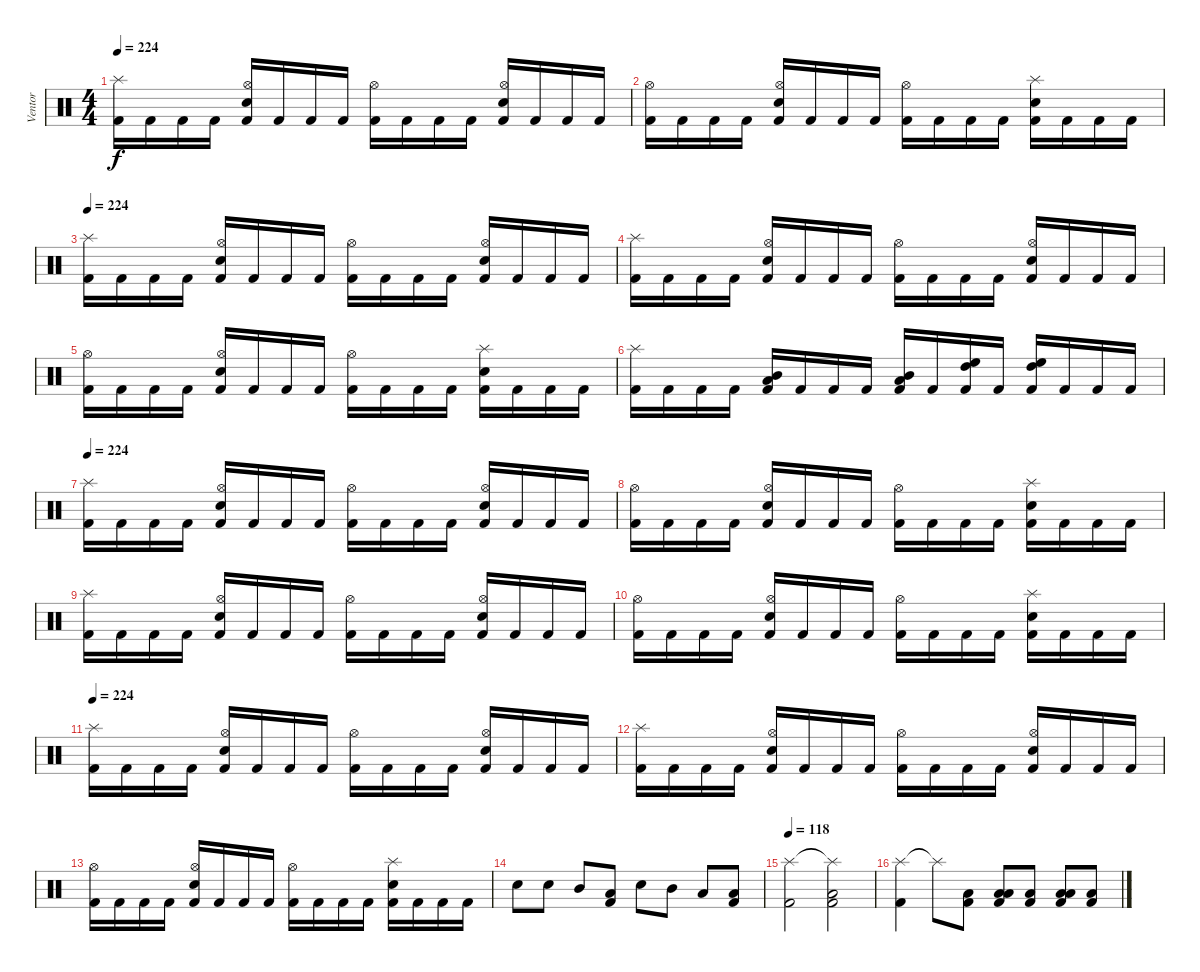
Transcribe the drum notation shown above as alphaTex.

\track ("Ventor" "Ventor") {instrument percussion}
\staff {score}
\articulation defaults
\ts (4 4)
\tempo 224
\clef neutral
\ks c
("Splash (hit)" "Kick (hit) 2").16{dy f} "Kick (hit) 2".16 "Kick (hit) 2".16 "Kick (hit) 2".16 ("Hi-Hat (open)" "Electric Snare (hit)" "Kick (hit) 2").16 "Kick (hit) 2".16 "Kick (hit) 2".16 "Kick (hit) 2".16 ("Hi-Hat (open)" "Kick (hit) 2").16 "Kick (hit) 2".16 "Kick (hit) 2".16 "Kick (hit) 2".16 ("Hi-Hat (open)" "Electric Snare (hit)" "Kick (hit) 2").16 "Kick (hit) 2".16 "Kick (hit) 2".16 "Kick (hit) 2".16 |
("Hi-Hat (open)" "Kick (hit) 2").16 "Kick (hit) 2".16 "Kick (hit) 2".16 "Kick (hit) 2".16 ("Hi-Hat (open)" "Electric Snare (hit)" "Kick (hit) 2").16 "Kick (hit) 2".16 "Kick (hit) 2".16 "Kick (hit) 2".16 ("Hi-Hat (open)" "Kick (hit) 2").16 "Kick (hit) 2".16 "Kick (hit) 2".16 "Kick (hit) 2".16 ("Splash (hit)" "Electric Snare (hit)" "Kick (hit) 2").16 "Kick (hit) 2".16 "Kick (hit) 2".16 "Kick (hit) 2".16 |
\tempo 224
("Splash (hit)" "Kick (hit) 2").16 "Kick (hit) 2".16 "Kick (hit) 2".16 "Kick (hit) 2".16 ("Hi-Hat (open)" "Electric Snare (hit)" "Kick (hit) 2").16 "Kick (hit) 2".16 "Kick (hit) 2".16 "Kick (hit) 2".16 ("Hi-Hat (open)" "Kick (hit) 2").16 "Kick (hit) 2".16 "Kick (hit) 2".16 "Kick (hit) 2".16 ("Hi-Hat (open)" "Electric Snare (hit)" "Kick (hit) 2").16 "Kick (hit) 2".16 "Kick (hit) 2".16 "Kick (hit) 2".16 |
("Splash (hit)" "Kick (hit) 2").16 "Kick (hit) 2".16 "Kick (hit) 2".16 "Kick (hit) 2".16 ("Hi-Hat (open)" "Electric Snare (hit)" "Kick (hit) 2").16 "Kick (hit) 2".16 "Kick (hit) 2".16 "Kick (hit) 2".16 ("Hi-Hat (open)" "Kick (hit) 2").16 "Kick (hit) 2".16 "Kick (hit) 2".16 "Kick (hit) 2".16 ("Hi-Hat (open)" "Electric Snare (hit)" "Kick (hit) 2").16 "Kick (hit) 2".16 "Kick (hit) 2".16 "Kick (hit) 2".16 |
("Hi-Hat (open)" "Kick (hit) 2").16 "Kick (hit) 2".16 "Kick (hit) 2".16 "Kick (hit) 2".16 ("Hi-Hat (open)" "Electric Snare (hit)" "Kick (hit) 2").16 "Kick (hit) 2".16 "Kick (hit) 2".16 "Kick (hit) 2".16 ("Hi-Hat (open)" "Kick (hit) 2").16 "Kick (hit) 2".16 "Kick (hit) 2".16 "Kick (hit) 2".16 ("Splash (hit)" "Electric Snare (hit)" "Kick (hit) 2").16 "Kick (hit) 2".16 "Kick (hit) 2".16 "Kick (hit) 2".16 |
("Splash (hit)" "Kick (hit) 2").16 "Kick (hit) 2".16 "Kick (hit) 2".16 "Kick (hit) 2".16 ("Low Tom (hit)" "Mid Tom (hit)" "Kick (hit) 2").16 "Kick (hit) 2".16 "Kick (hit) 2".16 "Kick (hit) 2".16 ("Low Tom (hit)" "Mid Tom (hit)" "Kick (hit) 2").16 "Kick (hit) 2".16 ("High Floor Tom (hit)" "High Tom (hit)" "Kick (hit) 2").16 "Kick (hit) 2".16 ("High Floor Tom (hit)" "High Tom (hit)" "Kick (hit) 2").16 "Kick (hit) 2".16 "Kick (hit) 2".16 "Kick (hit) 2".16 |
\tempo 224
("Splash (hit)" "Kick (hit) 2").16 "Kick (hit) 2".16 "Kick (hit) 2".16 "Kick (hit) 2".16 ("Hi-Hat (open)" "Electric Snare (hit)" "Kick (hit) 2").16 "Kick (hit) 2".16 "Kick (hit) 2".16 "Kick (hit) 2".16 ("Hi-Hat (open)" "Kick (hit) 2").16 "Kick (hit) 2".16 "Kick (hit) 2".16 "Kick (hit) 2".16 ("Hi-Hat (open)" "Electric Snare (hit)" "Kick (hit) 2").16 "Kick (hit) 2".16 "Kick (hit) 2".16 "Kick (hit) 2".16 |
("Hi-Hat (open)" "Kick (hit) 2").16 "Kick (hit) 2".16 "Kick (hit) 2".16 "Kick (hit) 2".16 ("Hi-Hat (open)" "Electric Snare (hit)" "Kick (hit) 2").16 "Kick (hit) 2".16 "Kick (hit) 2".16 "Kick (hit) 2".16 ("Hi-Hat (open)" "Kick (hit) 2").16 "Kick (hit) 2".16 "Kick (hit) 2".16 "Kick (hit) 2".16 ("Splash (hit)" "Electric Snare (hit)" "Kick (hit) 2").16 "Kick (hit) 2".16 "Kick (hit) 2".16 "Kick (hit) 2".16 |
("Splash (hit)" "Kick (hit) 2").16 "Kick (hit) 2".16 "Kick (hit) 2".16 "Kick (hit) 2".16 ("Hi-Hat (open)" "Electric Snare (hit)" "Kick (hit) 2").16 "Kick (hit) 2".16 "Kick (hit) 2".16 "Kick (hit) 2".16 ("Hi-Hat (open)" "Kick (hit) 2").16 "Kick (hit) 2".16 "Kick (hit) 2".16 "Kick (hit) 2".16 ("Hi-Hat (open)" "Electric Snare (hit)" "Kick (hit) 2").16 "Kick (hit) 2".16 "Kick (hit) 2".16 "Kick (hit) 2".16 |
("Hi-Hat (open)" "Kick (hit) 2").16 "Kick (hit) 2".16 "Kick (hit) 2".16 "Kick (hit) 2".16 ("Hi-Hat (open)" "Electric Snare (hit)" "Kick (hit) 2").16 "Kick (hit) 2".16 "Kick (hit) 2".16 "Kick (hit) 2".16 ("Hi-Hat (open)" "Kick (hit) 2").16 "Kick (hit) 2".16 "Kick (hit) 2".16 "Kick (hit) 2".16 ("Splash (hit)" "Electric Snare (hit)" "Kick (hit) 2").16 "Kick (hit) 2".16 "Kick (hit) 2".16 "Kick (hit) 2".16 |
\tempo 224
("Splash (hit)" "Kick (hit) 2").16 "Kick (hit) 2".16 "Kick (hit) 2".16 "Kick (hit) 2".16 ("Hi-Hat (open)" "Electric Snare (hit)" "Kick (hit) 2").16 "Kick (hit) 2".16 "Kick (hit) 2".16 "Kick (hit) 2".16 ("Hi-Hat (open)" "Kick (hit) 2").16 "Kick (hit) 2".16 "Kick (hit) 2".16 "Kick (hit) 2".16 ("Hi-Hat (open)" "Electric Snare (hit)" "Kick (hit) 2").16 "Kick (hit) 2".16 "Kick (hit) 2".16 "Kick (hit) 2".16 |
("Splash (hit)" "Kick (hit) 2").16 "Kick (hit) 2".16 "Kick (hit) 2".16 "Kick (hit) 2".16 ("Hi-Hat (open)" "Electric Snare (hit)" "Kick (hit) 2").16 "Kick (hit) 2".16 "Kick (hit) 2".16 "Kick (hit) 2".16 ("Hi-Hat (open)" "Kick (hit) 2").16 "Kick (hit) 2".16 "Kick (hit) 2".16 "Kick (hit) 2".16 ("Hi-Hat (open)" "Electric Snare (hit)" "Kick (hit) 2").16 "Kick (hit) 2".16 "Kick (hit) 2".16 "Kick (hit) 2".16 |
("Hi-Hat (open)" "Kick (hit) 2").16 "Kick (hit) 2".16 "Kick (hit) 2".16 "Kick (hit) 2".16 ("Hi-Hat (open)" "Electric Snare (hit)" "Kick (hit) 2").16 "Kick (hit) 2".16 "Kick (hit) 2".16 "Kick (hit) 2".16 ("Hi-Hat (open)" "Kick (hit) 2").16 "Kick (hit) 2".16 "Kick (hit) 2".16 "Kick (hit) 2".16 ("Splash (hit)" "Electric Snare (hit)" "Kick (hit) 2").16 "Kick (hit) 2".16 "Kick (hit) 2".16 "Kick (hit) 2".16 |
"Electric Snare (hit)".8 "Electric Snare (hit)".8 "Mid Tom (hit)".8 ("Low Tom (hit)" "Kick (hit) 2").8 "Electric Snare (hit)".8 "Mid Tom (hit)".8 "Low Tom (hit)".8 ("Low Floor Tom (hit)" "Kick (hit) 2").8 |
\tempo 118
("Splash (hit)" "Kick (hit) 2").2 ("Splash (hit)"{t} "Low Floor Tom (hit)" "Kick (hit) 2").2 |
("Splash (hit)" "Kick (hit) 2").4 "Splash (hit)"{t}.8 ("Low Floor Tom (hit)" "Kick (hit) 2").8 ("Low Floor Tom (hit)" "Low Tom (hit)" "Kick (hit) 2").8 ("Low Floor Tom (hit)" "Kick (hit) 2").8 ("Low Floor Tom (hit)" "Low Tom (hit)" "Kick (hit) 2").8 ("Low Floor Tom (hit)" "Kick (hit) 2").8
